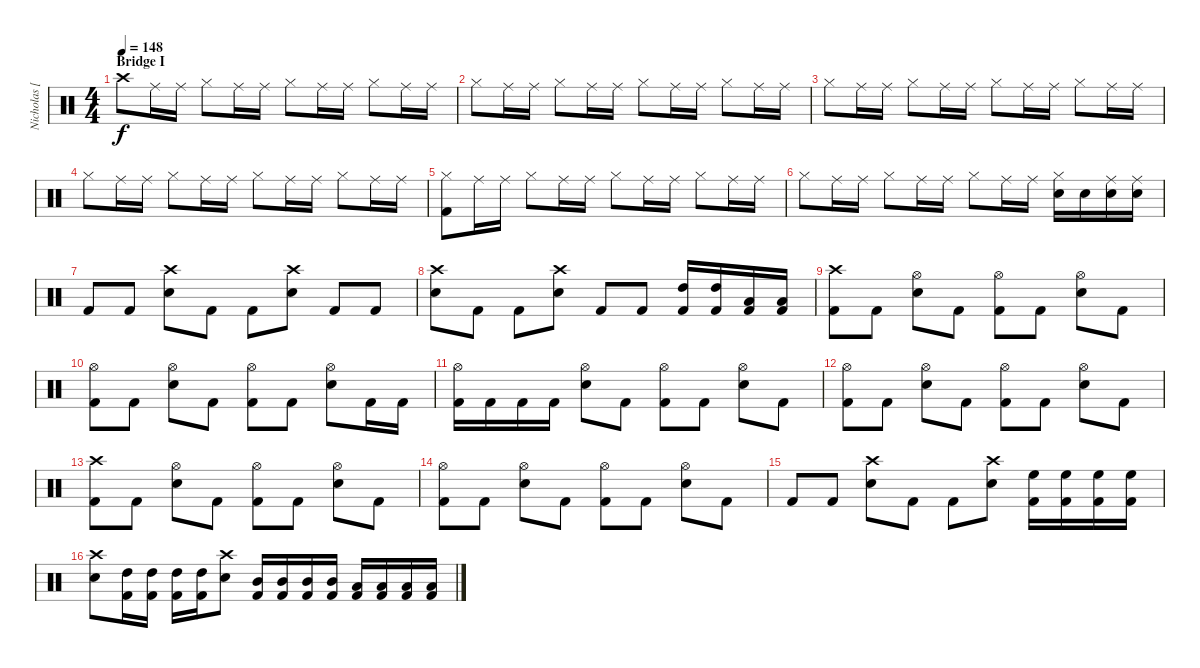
\track ("Nicholas [Percussion]" "Nicholas [") {instrument percussion}
\staff {score}
\articulation defaults
\ts (4 4)
\section ("" "Bridge I")
\tempo 148
\clef neutral
\ks c "Crash high (hit)".8{dy f} "Ride (middle)".16 "Ride (middle)".16 "Hi-Hat (closed)".8 "Ride (middle)".16 "Ride (middle)".16 "Hi-Hat (closed)".8 "Ride (middle)".16 "Ride (middle)".16 "Hi-Hat (closed)".8 "Ride (middle)".16 "Ride (middle)".16
|
"Hi-Hat (closed)".8 "Ride (middle)".16 "Ride (middle)".16 "Hi-Hat (closed)".8 "Ride (middle)".16 "Ride (middle)".16 "Hi-Hat (closed)".8 "Ride (middle)".16 "Ride (middle)".16 "Hi-Hat (closed)".8 "Ride (middle)".16 "Ride (middle)".16 |
"Hi-Hat (closed)".8 "Ride (middle)".16 "Ride (middle)".16 "Hi-Hat (closed)".8 "Ride (middle)".16 "Ride (middle)".16 "Hi-Hat (closed)".8 "Ride (middle)".16 "Ride (middle)".16 "Hi-Hat (closed)".8 "Ride (middle)".16 "Ride (middle)".16 |
"Hi-Hat (closed)".8 "Ride (middle)".16 "Ride (middle)".16 "Hi-Hat (closed)".8 "Ride (middle)".16 "Ride (middle)".16 "Hi-Hat (closed)".8 "Ride (middle)".16 "Ride (middle)".16 "Hi-Hat (closed)".8 "Ride (middle)".16 "Ride (middle)".16 |
("Kick (hit) 2" "Hi-Hat (closed)").8 "Ride (middle)".16 "Ride (middle)".16 "Hi-Hat (closed)".8 "Ride (middle)".16 "Ride (middle)".16 "Hi-Hat (closed)".8 "Ride (middle)".16 "Ride (middle)".16 "Hi-Hat (closed)".8 "Ride (middle)".16 "Ride (middle)".16 |
"Hi-Hat (closed)".8 "Ride (middle)".16 "Ride (middle)".16 "Hi-Hat (closed)".8 "Ride (middle)".16 "Ride (middle)".16 "Hi-Hat (closed)".8 "Ride (middle)".16 "Ride (middle)".16 ("Snare (hit) 2" "Hi-Hat (closed)").16 "Snare (hit) 2".16 ("Snare (hit) 2" "Ride (middle)").16 ("Snare (hit) 2" "Ride (middle)").16 |
"Kick (hit) 2".8 "Kick (hit) 2".8 ("Snare (hit) 2" "Crash high (hit)").8 "Kick (hit) 2".8 "Kick (hit) 2".8 ("Snare (hit) 2" "Crash high (hit)").8 "Kick (hit) 2".8 "Kick (hit) 2".8 |
("Snare (hit) 2" "Crash high (hit)").8 "Kick (hit) 2".8 "Kick (hit) 2".8 ("Snare (hit) 2" "Crash high (hit)").8 "Kick (hit) 2".8 "Kick (hit) 2".8 ("Kick (hit) 2" "High Tom (hit)").16 ("Kick (hit) 2" "High Tom (hit)").16 ("Kick (hit) 2" "Low Tom (hit)").16 ("Kick (hit) 2" "Low Tom (hit)").16 |
("Kick (hit) 2" "Crash high (hit)").8 "Kick (hit) 2".8 ("Snare (hit) 2" "Hi-Hat (open)").8 "Kick (hit) 2".8 ("Kick (hit) 2" "Hi-Hat (open)").8 "Kick (hit) 2".8 ("Snare (hit) 2" "Hi-Hat (open)").8 "Kick (hit) 2".8 |
("Kick (hit) 2" "Hi-Hat (open)").8 "Kick (hit) 2".8 ("Snare (hit) 2" "Hi-Hat (open)").8 "Kick (hit) 2".8 ("Kick (hit) 2" "Hi-Hat (open)").8 "Kick (hit) 2".8 ("Snare (hit) 2" "Hi-Hat (open)").8 "Kick (hit) 2".16 "Kick (hit) 2".16 |
("Kick (hit) 2" "Hi-Hat (open)").16 "Kick (hit) 2".16 "Kick (hit) 2".16 "Kick (hit) 2".16 ("Snare (hit) 2" "Hi-Hat (open)").8 "Kick (hit) 2".8 ("Kick (hit) 2" "Hi-Hat (open)").8 "Kick (hit) 2".8 ("Snare (hit) 2" "Hi-Hat (open)").8 "Kick (hit) 2".8 |
("Kick (hit) 2" "Hi-Hat (open)").8 "Kick (hit) 2".8 ("Snare (hit) 2" "Hi-Hat (open)").8 "Kick (hit) 2".8 ("Kick (hit) 2" "Hi-Hat (open)").8 "Kick (hit) 2".8 ("Snare (hit) 2" "Hi-Hat (open)").8 "Kick (hit) 2".8 |
("Kick (hit) 2" "Crash high (hit)").8 "Kick (hit) 2".8 ("Snare (hit) 2" "Hi-Hat (open)").8 "Kick (hit) 2".8 ("Kick (hit) 2" "Hi-Hat (open)").8 "Kick (hit) 2".8 ("Snare (hit) 2" "Hi-Hat (open)").8 "Kick (hit) 2".8 |
("Kick (hit) 2" "Hi-Hat (open)").8 "Kick (hit) 2".8 ("Snare (hit) 2" "Hi-Hat (open)").8 "Kick (hit) 2".8 ("Kick (hit) 2" "Hi-Hat (open)").8 "Kick (hit) 2".8 ("Snare (hit) 2" "Hi-Hat (open)").8 "Kick (hit) 2".8 |
"Kick (hit) 2".8 "Kick (hit) 2".8 ("Snare (hit) 2" "Crash high (hit)").8 "Kick (hit) 2".8 "Kick (hit) 2".8 ("Snare (hit) 2" "Crash high (hit)").8 ("Kick (hit) 2" "High Floor Tom (hit)").16 ("Kick (hit) 2" "High Floor Tom (hit)").16 ("Kick (hit) 2" "High Floor Tom (hit)").16 ("Kick (hit) 2" "High Floor Tom (hit)").16 |
("Snare (hit) 2" "Crash high (hit)").8 ("Kick (hit) 2" "High Tom (hit)").16 ("Kick (hit) 2" "High Tom (hit)").16 ("Kick (hit) 2" "High Tom (hit)").16 ("Kick (hit) 2" "High Tom (hit)").16 ("Snare (hit) 2" "Crash high (hit)").8 ("Kick (hit) 2" "Mid Tom (hit)").16 ("Kick (hit) 2" "Mid Tom (hit)").16 ("Kick (hit) 2" "Mid Tom (hit)").16 ("Kick (hit) 2" "Mid Tom (hit)").16 ("Kick (hit) 2" "Low Tom (hit)").16 ("Kick (hit) 2" "Low Tom (hit)").16 ("Kick (hit) 2" "Low Tom (hit)").16 ("Kick (hit) 2" "Low Tom (hit)").16
